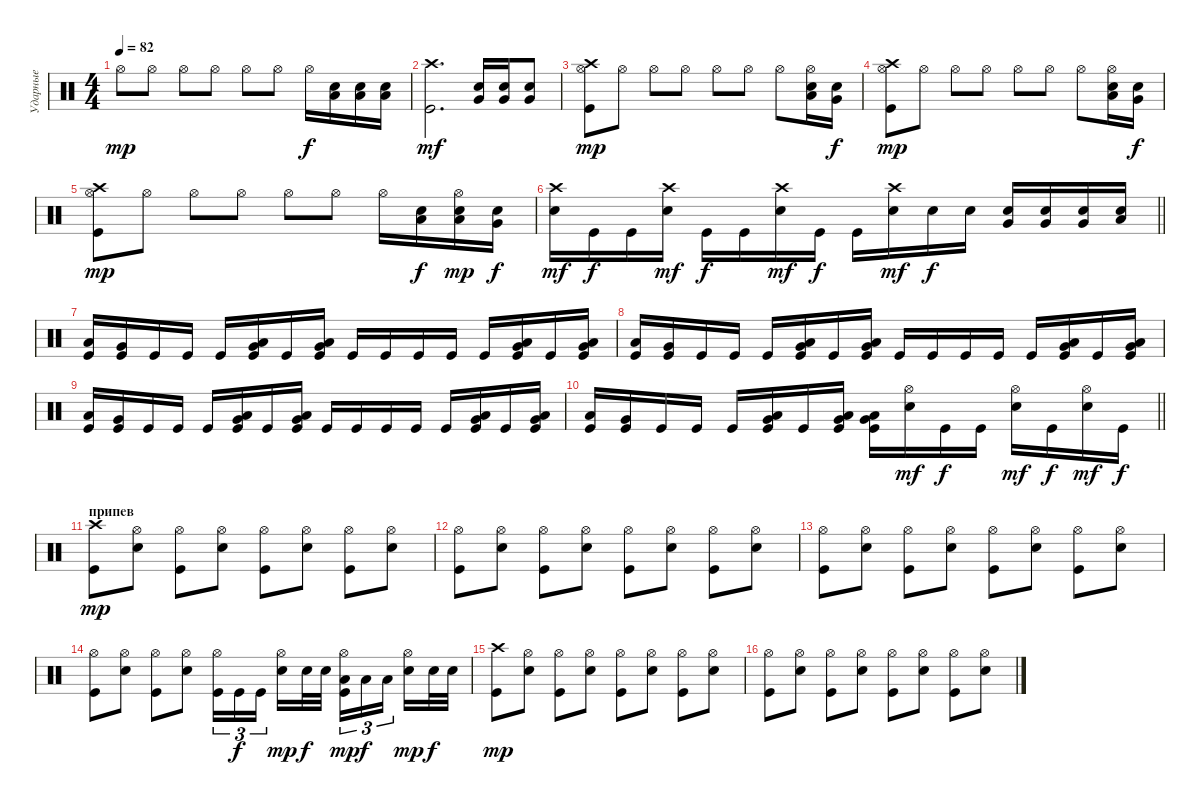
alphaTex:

\track ("Ударные" "Ударные") {instrument percussion}
\staff {score}
\articulation defaults
\ts (4 4)
\tempo 82
\clef neutral
\ks c "Hi-Hat (open)".8{dy mp} "Hi-Hat (open)".8 "Hi-Hat (open)".8 "Hi-Hat (open)".8 "Hi-Hat (open)".8 "Hi-Hat (open)".8 "Hi-Hat (open)".16{dy f}
("Snare (hit) 2" "Low Floor Tom (hit)").16 ("Snare (hit) 2" "Low Floor Tom (hit)").16 ("Snare (hit) 2" "Low Floor Tom (hit)").16 |
("Kick (hit)" "Crash high (hit)").2{d dy mf} ("Snare (hit) 2" "Very Low Tom (hit)").16 ("Snare (hit) 2" "Very Low Tom (hit)").16 ("Snare (hit) 2" "Very Low Tom (hit)").8 |
("Kick (hit)" "Hi-Hat (open)" "Crash high (hit)").8{dy mp} "Hi-Hat (open)".8 "Hi-Hat (open)".8 "Hi-Hat (open)".8 "Hi-Hat (open)".8 "Hi-Hat (open)".8 "Hi-Hat (open)".8 ("Hi-Hat (open)" "Snare (hit) 2" "Low Floor Tom (hit)").16 ("Snare (hit) 2" "Very Low Tom (hit)").16{dy f} |
("Kick (hit)" "Hi-Hat (open)" "Crash high (hit)").8{dy mp} "Hi-Hat (open)".8 "Hi-Hat (open)".8 "Hi-Hat (open)".8 "Hi-Hat (open)".8 "Hi-Hat (open)".8 "Hi-Hat (open)".8 ("Hi-Hat (open)" "Snare (hit) 2" "Low Floor Tom (hit)").16 ("Snare (hit) 2" "Very Low Tom (hit)").16{dy f} |
("Kick (hit)" "Hi-Hat (open)" "Crash high (hit)").8{dy mp} "Hi-Hat (open)".8 "Hi-Hat (open)".8 "Hi-Hat (open)".8 "Hi-Hat (open)".8 "Hi-Hat (open)".8 "Hi-Hat (open)".16 ("Snare (hit) 2" "Low Floor Tom (hit)").16{dy f} ("Hi-Hat (open)" "Snare (hit) 2" "Low Floor Tom (hit)").16{dy mp} ("Snare (hit) 2" "Very Low Tom (hit)").16{dy f} |
\barLineRight lightlight
("Snare (hit) 2" "Crash high (hit)").16{dy mf} "Kick (hit)".16{dy f} "Kick (hit)".16 ("Snare (hit) 2" "Crash high (hit)").16{dy mf} "Kick (hit)".16{dy f} "Kick (hit)".16 ("Snare (hit) 2" "Crash high (hit)").16{dy mf} "Kick (hit)".16{dy f} "Kick (hit)".16 ("Snare (hit) 2" "Crash high (hit)").16{dy mf} "Snare (hit) 2".16{dy f} "Snare (hit) 2".16 ("Snare (hit) 2" "Very Low Tom (hit)").16 ("Snare (hit) 2" "Very Low Tom (hit)").16 ("Snare (hit) 2" "Very Low Tom (hit)").16 ("Snare (hit) 2" "Low Floor Tom (hit)").16 |
\section ("" "")
("Kick (hit)" "Low Tom (hit)").16 ("Kick (hit)" "Very Low Tom (hit)").16 "Kick (hit)".16 "Kick (hit)".16 "Kick (hit)".16 ("Kick (hit)" "Low Tom (hit)" "Very Low Tom (hit)").16 "Kick (hit)".16 ("Kick (hit)" "Low Tom (hit)" "Very Low Tom (hit)").16 "Kick (hit)".16 "Kick (hit)".16 "Kick (hit)".16 "Kick (hit)".16 "Kick (hit)".16 ("Kick (hit)" "Low Tom (hit)" "Very Low Tom (hit)").16 "Kick (hit)".16 ("Kick (hit)" "Low Tom (hit)" "Very Low Tom (hit)").16 |
("Kick (hit)" "Low Tom (hit)").16 ("Kick (hit)" "Very Low Tom (hit)").16 "Kick (hit)".16 "Kick (hit)".16 "Kick (hit)".16 ("Kick (hit)" "Low Tom (hit)" "Very Low Tom (hit)").16 "Kick (hit)".16 ("Kick (hit)" "Low Tom (hit)" "Very Low Tom (hit)").16 "Kick (hit)".16 "Kick (hit)".16 "Kick (hit)".16 "Kick (hit)".16 "Kick (hit)".16 ("Kick (hit)" "Low Tom (hit)" "Very Low Tom (hit)").16 "Kick (hit)".16 ("Kick (hit)" "Low Tom (hit)" "Very Low Tom (hit)").16 |
("Kick (hit)" "Low Tom (hit)").16 ("Kick (hit)" "Very Low Tom (hit)").16 "Kick (hit)".16 "Kick (hit)".16 "Kick (hit)".16 ("Kick (hit)" "Low Tom (hit)" "Very Low Tom (hit)").16 "Kick (hit)".16 ("Kick (hit)" "Low Tom (hit)" "Very Low Tom (hit)").16 "Kick (hit)".16 "Kick (hit)".16 "Kick (hit)".16 "Kick (hit)".16 "Kick (hit)".16 ("Kick (hit)" "Low Tom (hit)" "Very Low Tom (hit)").16 "Kick (hit)".16 ("Kick (hit)" "Low Tom (hit)" "Very Low Tom (hit)").16 |
\barLineRight lightlight
("Kick (hit)" "Low Tom (hit)").16 ("Kick (hit)" "Very Low Tom (hit)").16 "Kick (hit)".16 "Kick (hit)".16 "Kick (hit)".16 ("Kick (hit)" "Low Tom (hit)" "Very Low Tom (hit)").16 "Kick (hit)".16 ("Kick (hit)" "Low Tom (hit)" "Very Low Tom (hit)").16 ("Kick (hit)" "Low Tom (hit)" "Very Low Tom (hit)").16 ("Snare (hit) 2" "Hi-Hat (open)").16{dy mf} "Kick (hit)".16{dy f} "Kick (hit)".16 ("Snare (hit) 2" "Hi-Hat (open)").16{dy mf} "Kick (hit)".16{dy f} ("Snare (hit) 2" "Hi-Hat (open)").16{dy mf} "Kick (hit)".16{dy f} |
\section ("" "припев")
("Kick (hit)" "Crash high (hit)").8{dy mp} ("Snare (hit) 2" "Hi-Hat (open)").8 ("Kick (hit)" "Hi-Hat (open)").8 ("Snare (hit) 2" "Hi-Hat (open)").8 ("Kick (hit)" "Hi-Hat (open)").8 ("Snare (hit) 2" "Hi-Hat (open)").8 ("Kick (hit)" "Hi-Hat (open)").8 ("Snare (hit) 2" "Hi-Hat (open)").8 |
("Kick (hit)" "Hi-Hat (open)").8 ("Snare (hit) 2" "Hi-Hat (open)").8 ("Kick (hit)" "Hi-Hat (open)").8 ("Snare (hit) 2" "Hi-Hat (open)").8 ("Kick (hit)" "Hi-Hat (open)").8 ("Snare (hit) 2" "Hi-Hat (open)").8 ("Kick (hit)" "Hi-Hat (open)").8 ("Snare (hit) 2" "Hi-Hat (open)").8 |
("Kick (hit)" "Hi-Hat (open)").8 ("Snare (hit) 2" "Hi-Hat (open)").8 ("Kick (hit)" "Hi-Hat (open)").8 ("Snare (hit) 2" "Hi-Hat (open)").8 ("Kick (hit)" "Hi-Hat (open)").8 ("Snare (hit) 2" "Hi-Hat (open)").8 ("Kick (hit)" "Hi-Hat (open)").8 ("Snare (hit) 2" "Hi-Hat (open)").8 |
("Kick (hit)" "Hi-Hat (open)").8 ("Snare (hit) 2" "Hi-Hat (open)").8 ("Kick (hit)" "Hi-Hat (open)").8 ("Snare (hit) 2" "Hi-Hat (open)").8 ("Kick (hit)" "Hi-Hat (open)").16{tu (3 2)} "Kick (hit)".16{tu (3 2) dy f} "Kick (hit)".16{tu (3 2) beam splitsecondary} ("Snare (hit) 2" "Hi-Hat (open)").16{dy mp} "Snare (hit) 2".32{dy f} "Snare (hit) 2".32 ("Kick (hit)" "Hi-Hat (open)" "Low Floor Tom (hit)").16{tu (3 2) dy mp} "Low Floor Tom (hit)".16{tu (3 2) dy f} "Low Floor Tom (hit)".16{tu (3 2) beam splitsecondary} ("Snare (hit) 2" "Hi-Hat (open)").16{dy mp} "Snare (hit) 2".32{dy f} "Snare (hit) 2".32 |
("Kick (hit)" "Crash high (hit)").8{dy mp} ("Snare (hit) 2" "Hi-Hat (open)").8 ("Kick (hit)" "Hi-Hat (open)").8 ("Snare (hit) 2" "Hi-Hat (open)").8 ("Kick (hit)" "Hi-Hat (open)").8 ("Snare (hit) 2" "Hi-Hat (open)").8 ("Kick (hit)" "Hi-Hat (open)").8 ("Snare (hit) 2" "Hi-Hat (open)").8 |
("Kick (hit)" "Hi-Hat (open)").8 ("Snare (hit) 2" "Hi-Hat (open)").8 ("Kick (hit)" "Hi-Hat (open)").8 ("Snare (hit) 2" "Hi-Hat (open)").8 ("Kick (hit)" "Hi-Hat (open)").8 ("Snare (hit) 2" "Hi-Hat (open)").8 ("Kick (hit)" "Hi-Hat (open)").8 ("Snare (hit) 2" "Hi-Hat (open)").8
